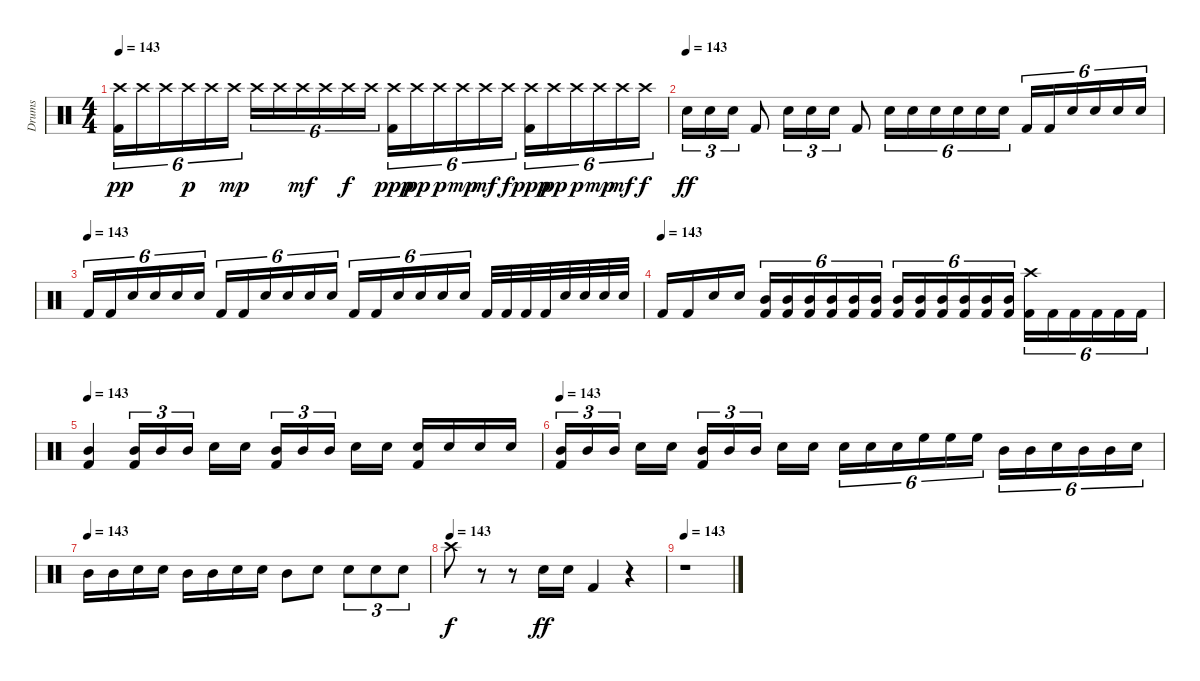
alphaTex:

\track ("Drums" "Drums") {instrument percussion}
\staff {score}
\articulation defaults
\ts (4 4)
\tempo 143
\clef neutral
\ks c
("Kick (hit) 2" "Crash high (hit)").16{tu (6 4) dy pp} "Crash high (hit)".16{tu (6 4)} "Crash high (hit)".16{tu (6 4)} "Crash high (hit)".16{tu (6 4) dy p} "Crash high (hit)".16{tu (6 4)} "Crash high (hit)".16{tu (6 4) dy mp} "Crash high (hit)".16{tu (6 4)} "Crash high (hit)".16{tu (6 4)} "Crash high (hit)".16{tu (6 4) dy mf} "Crash high (hit)".16{tu (6 4)} "Crash high (hit)".16{tu (6 4) dy f} "Crash high (hit)".16{tu (6 4)} ("Kick (hit) 2" "Crash high (hit)").16{tu (6 4) dy ppp} "Crash high (hit)".16{tu (6 4) dy pp} "Crash high (hit)".16{tu (6 4) dy p} "Crash high (hit)".16{tu (6 4) dy mp} "Crash high (hit)".16{tu (6 4) dy mf} "Crash high (hit)".16{tu (6 4) dy f} ("Kick (hit) 2" "Crash high (hit)").16{tu (6 4) dy ppp} "Crash high (hit)".16{tu (6 4) dy pp} "Crash high (hit)".16{tu (6 4) dy p} "Crash high (hit)".16{tu (6 4) dy mp} "Crash high (hit)".16{tu (6 4) dy mf} "Crash high (hit)".16{tu (6 4) dy f} |
\tempo (143)
"Snare (hit) 2".16{tu (3 2) dy ff} "Snare (hit) 2".16{tu (3 2)} "Snare (hit) 2".16{tu (3 2)} "Kick (hit) 2".8 "Snare (hit) 2".16{tu (3 2)} "Snare (hit) 2".16{tu (3 2)} "Snare (hit) 2".16{tu (3 2)} "Kick (hit) 2".8 "Snare (hit) 2".16{tu (6 4)} "Snare (hit) 2".16{tu (6 4)} "Snare (hit) 2".16{tu (6 4)} "Snare (hit) 2".16{tu (6 4)} "Snare (hit) 2".16{tu (6 4)} "Snare (hit) 2".16{tu (6 4)} "Kick (hit) 2".16{tu (6 4)} "Kick (hit) 2".16{tu (6 4)} "Snare (hit) 2".16{tu (6 4)} "Snare (hit) 2".16{tu (6 4)} "Snare (hit) 2".16{tu (6 4)} "Snare (hit) 2".16{tu (6 4)} |
\tempo (143)
"Kick (hit) 2".16{tu (6 4)} "Kick (hit) 2".16{tu (6 4)} "Snare (hit) 2".16{tu (6 4)} "Snare (hit) 2".16{tu (6 4)} "Snare (hit) 2".16{tu (6 4)} "Snare (hit) 2".16{tu (6 4)} "Kick (hit) 2".16{tu (6 4)} "Kick (hit) 2".16{tu (6 4)} "Snare (hit) 2".16{tu (6 4)} "Snare (hit) 2".16{tu (6 4)} "Snare (hit) 2".16{tu (6 4)} "Snare (hit) 2".16{tu (6 4)} "Kick (hit) 2".16{tu (6 4)} "Kick (hit) 2".16{tu (6 4)} "Snare (hit) 2".16{tu (6 4)} "Snare (hit) 2".16{tu (6 4)} "Snare (hit) 2".16{tu (6 4)} "Snare (hit) 2".16{tu (6 4)} "Kick (hit) 2".32 "Kick (hit) 2".32 "Kick (hit) 2".32 "Kick (hit) 2".32 "Snare (hit) 2".32 "Snare (hit) 2".32 "Snare (hit) 2".32 "Snare (hit) 2".32 |
\tempo (143)
"Kick (hit) 2".16 "Kick (hit) 2".16 "Snare (hit) 2".16 "Snare (hit) 2".16 ("Mid Tom (hit)" "Kick (hit) 2").16{tu (6 4)} ("Kick (hit) 2" "Mid Tom (hit)").16{tu (6 4)} ("Kick (hit) 2" "Mid Tom (hit)").16{tu (6 4)} ("Kick (hit) 2" "Mid Tom (hit)").16{tu (6 4)} ("Kick (hit) 2" "Mid Tom (hit)").16{tu (6 4)} ("Kick (hit) 2" "Mid Tom (hit)").16{tu (6 4)} ("Mid Tom (hit)" "Kick (hit) 2").16{tu (6 4)} ("Kick (hit) 2" "Mid Tom (hit)").16{tu (6 4)} ("Kick (hit) 2" "Mid Tom (hit)").16{tu (6 4)} ("Kick (hit) 2" "Mid Tom (hit)").16{tu (6 4)} ("Kick (hit) 2" "Mid Tom (hit)").16{tu (6 4)} ("Kick (hit) 2" "Mid Tom (hit)").16{tu (6 4)} ("Crash high (hit)" "Kick (hit) 2").16{tu (6 4)} "Kick (hit) 2".16{tu (6 4)} "Kick (hit) 2".16{tu (6 4)} "Kick (hit) 2".16{tu (6 4)} "Kick (hit) 2".16{tu (6 4)} "Kick (hit) 2".16{tu (6 4)} |
\tempo 143
("Mid Tom (hit)" "Kick (hit) 2").4 ("Mid Tom (hit)" "Kick (hit) 2").16{tu (3 2)} "Mid Tom (hit)".16{tu (3 2)} "Mid Tom (hit)".16{tu (3 2)} "Snare (hit) 2".16 "Snare (hit) 2".16 ("Mid Tom (hit)" "Kick (hit) 2").16{tu (3 2)} "Mid Tom (hit)".16{tu (3 2)} "Mid Tom (hit)".16{tu (3 2)} "Snare (hit) 2".16 "Snare (hit) 2".16 ("Snare (hit) 2" "Kick (hit) 2").16 "Snare (hit) 2".16 "Snare (hit) 2".16 "Snare (hit) 2".16 |
\tempo 143
("Mid Tom (hit)" "Kick (hit) 2").16{tu (3 2)} "Mid Tom (hit)".16{tu (3 2)} "Mid Tom (hit)".16{tu (3 2)} "Snare (hit) 2".16 "Snare (hit) 2".16 ("Mid Tom (hit)" "Kick (hit) 2").16{tu (3 2)} "Mid Tom (hit)".16{tu (3 2)} "Mid Tom (hit)".16{tu (3 2)} "Snare (hit) 2".16 "Snare (hit) 2".16 "Snare (hit) 2".16{tu (6 4)} "Snare (hit) 2".16{tu (6 4)} "Snare (hit) 2".16{tu (6 4)} "High Floor Tom (hit)".16{tu (6 4)} "High Floor Tom (hit)".16{tu (6 4)} "High Floor Tom (hit)".16{tu (6 4)} "Mid Tom (hit)".16{tu (6 4)} "Mid Tom (hit)".16{tu (6 4)} "Snare (hit) 2".16{tu (6 4)} "Mid Tom (hit)".16{tu (6 4)} "Mid Tom (hit)".16{tu (6 4)} "Snare (hit) 2".16{tu (6 4)} |
\tempo (143)
"Mid Tom (hit)".16 "Mid Tom (hit)".16 "Snare (hit) 2".16 "Snare (hit) 2".16 "Mid Tom (hit)".16 "Mid Tom (hit)".16 "Snare (hit) 2".16 "Snare (hit) 2".16 "Mid Tom (hit)".8 "Snare (hit) 2".8 "Snare (hit) 2".8{tu (3 2)} "Snare (hit) 2".8{tu (3 2)} "Snare (hit) 2".8{tu (3 2)} |
\tempo (143)
"Crash high (hit)".8{dy f} r.8 r.8 "Snare (hit) 2".16{dy ff} "Snare (hit) 2".16 "Kick (hit) 2".4 r.4 |
\tempo 143
r.1
